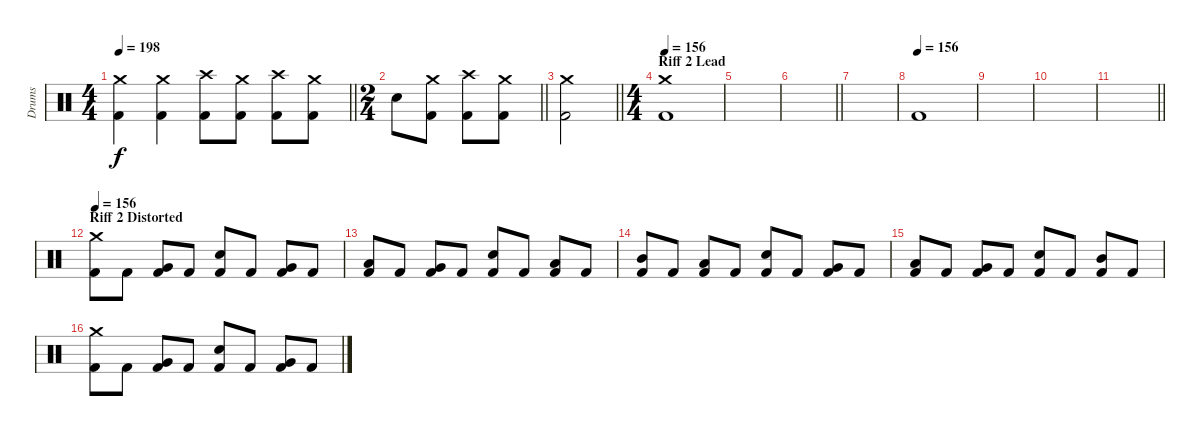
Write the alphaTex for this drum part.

\track ("Drums" "Drums") {instrument percussion}
\staff {score}
\articulation defaults
\ts (4 4)
\tempo 198
\clef neutral
\barLineRight lightlight
\ks c
("Crash medium (hit)" "Kick (hit) 2").4{dy f} ("Crash medium (hit)" "Kick (hit) 2").4 ("Crash high (hit)" "Kick (hit) 2").8 ("Crash medium (hit)" "Kick (hit) 2").8 ("Crash high (hit)" "Kick (hit) 2").8 ("Crash medium (hit)" "Kick (hit) 2").8 |
\ts (2 4)
\barLineRight lightlight "Snare (hit) 2".8
("Crash medium (hit)" "Kick (hit) 2").8 ("Crash high (hit)" "Kick (hit) 2").8 ("Crash medium (hit)" "Kick (hit) 2").8 |
\barLineRight lightlight
("Crash medium (hit)" "Kick (hit) 2").2 |
\ts (4 4)
\section ("" "Riff 2 Lead")
\tempo 156
("Crash medium (hit)" "Kick (hit) 2").1 |
|
\barLineRight lightlight
|
|
\tempo (156)
"Kick (hit) 2".1 |
|
|
\barLineRight lightlight
|
\section ("" "Riff 2 Distorted")
\tempo 156
("Crash medium (hit)" "Kick (hit) 2").8 "Kick (hit) 2".8 ("Very Low Tom (hit)" "Kick (hit) 2").8 "Kick (hit) 2".8 ("Snare (hit) 2" "Kick (hit) 2").8 "Kick (hit) 2".8 ("Very Low Tom (hit)" "Kick (hit) 2").8 "Kick (hit) 2".8 |
("Low Tom (hit)" "Kick (hit) 2").8 "Kick (hit) 2".8 ("Very Low Tom (hit)" "Kick (hit) 2").8 "Kick (hit) 2".8 ("Snare (hit) 2" "Kick (hit) 2").8 "Kick (hit) 2".8 ("Low Tom (hit)" "Kick (hit) 2").8 "Kick (hit) 2".8 |
("Mid Tom (hit)" "Kick (hit) 2").8 "Kick (hit) 2".8 ("Low Tom (hit)" "Kick (hit) 2").8 "Kick (hit) 2".8 ("Snare (hit) 2" "Kick (hit) 2").8 "Kick (hit) 2".8 ("Very Low Tom (hit)" "Kick (hit) 2").8 "Kick (hit) 2".8 |
("Low Tom (hit)" "Kick (hit) 2").8 "Kick (hit) 2".8 ("Very Low Tom (hit)" "Kick (hit) 2").8 "Kick (hit) 2".8 ("Snare (hit) 2" "Kick (hit) 2").8 "Kick (hit) 2".8 ("Mid Tom (hit)" "Kick (hit) 2").8 "Kick (hit) 2".8 |
("Crash medium (hit)" "Kick (hit) 2").8 "Kick (hit) 2".8 ("Very Low Tom (hit)" "Kick (hit) 2").8 "Kick (hit) 2".8 ("Snare (hit) 2" "Kick (hit) 2").8 "Kick (hit) 2".8 ("Very Low Tom (hit)" "Kick (hit) 2").8 "Kick (hit) 2".8
